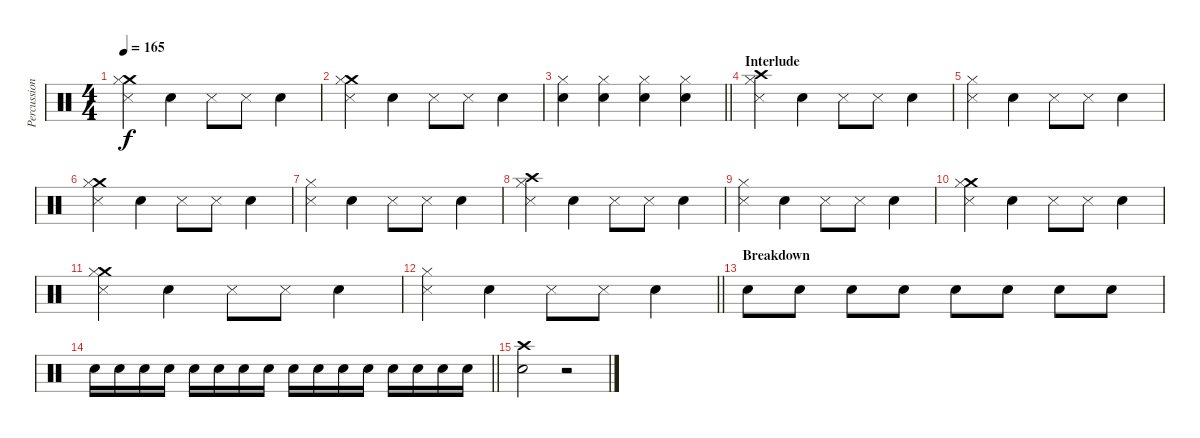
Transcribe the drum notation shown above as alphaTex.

\track ("Percussion" "Percussion") {instrument percussion}
\staff {score}
\articulation defaults
\ts (4 4)
\tempo 165
\clef neutral
\ks c
("Metronome (hit)" "Crash medium (hit)" "Hi-Hat (closed)").4{dy f} "Electric Snare (hit)".4 "Metronome (hit)".8 "Metronome (hit)".8 "Electric Snare (hit)".4 |
("Metronome (hit)" "Crash medium (hit)" "Hi-Hat (closed)").4 "Electric Snare (hit)".4 "Metronome (hit)".8 "Metronome (hit)".8 "Electric Snare (hit)".4 |
\barLineRight lightlight
("Hi-Hat (closed)" "Electric Snare (hit)").4 ("Hi-Hat (closed)" "Electric Snare (hit)").4 ("Hi-Hat (closed)" "Electric Snare (hit)").4 ("Hi-Hat (closed)" "Electric Snare (hit)").4 |
\section ("" "Interlude")
("Metronome (hit)" "Crash high (hit)" "Hi-Hat (closed)").4 "Electric Snare (hit)".4 "Metronome (hit)".8 "Metronome (hit)".8 "Electric Snare (hit)".4 |
("Metronome (hit)" "Hi-Hat (closed)").4 "Electric Snare (hit)".4 "Metronome (hit)".8 "Metronome (hit)".8 "Electric Snare (hit)".4 |
("Metronome (hit)" "Crash medium (hit)" "Hi-Hat (closed)").4 "Electric Snare (hit)".4 "Metronome (hit)".8 "Metronome (hit)".8 "Electric Snare (hit)".4 |
("Metronome (hit)" "Hi-Hat (closed)").4 "Electric Snare (hit)".4 "Metronome (hit)".8 "Metronome (hit)".8 "Electric Snare (hit)".4 |
("Metronome (hit)" "Crash high (hit)" "Hi-Hat (closed)").4 "Electric Snare (hit)".4 "Metronome (hit)".8 "Metronome (hit)".8 "Electric Snare (hit)".4 |
("Metronome (hit)" "Hi-Hat (closed)").4 "Electric Snare (hit)".4 "Metronome (hit)".8 "Metronome (hit)".8 "Electric Snare (hit)".4 |
("Metronome (hit)" "Crash medium (hit)" "Hi-Hat (closed)").4 "Electric Snare (hit)".4 "Metronome (hit)".8 "Metronome (hit)".8 "Electric Snare (hit)".4 |
("Metronome (hit)" "Crash medium (hit)" "Hi-Hat (closed)").4 "Electric Snare (hit)".4 "Metronome (hit)".8 "Metronome (hit)".8 "Electric Snare (hit)".4 |
\barLineRight lightlight
("Metronome (hit)" "Hi-Hat (closed)").4 "Electric Snare (hit)".4 "Metronome (hit)".8 "Metronome (hit)".8 "Electric Snare (hit)".4 |
\section ("" "Breakdown")
"Electric Snare (hit)".8 "Electric Snare (hit)".8 "Electric Snare (hit)".8 "Electric Snare (hit)".8 "Electric Snare (hit)".8 "Electric Snare (hit)".8 "Electric Snare (hit)".8 "Electric Snare (hit)".8 |
\barLineRight lightlight "Electric Snare (hit)".16 "Electric Snare (hit)".16 "Electric Snare (hit)".16 "Electric Snare (hit)".16 "Electric Snare (hit)".16 "Electric Snare (hit)".16 "Electric Snare (hit)".16 "Electric Snare (hit)".16 "Electric Snare (hit)".16 "Electric Snare (hit)".16 "Electric Snare (hit)".16 "Electric Snare (hit)".16 "Electric Snare (hit)".16 "Electric Snare (hit)".16 "Electric Snare (hit)".16 "Electric Snare (hit)".16
|
("Crash high (hit)" "Electric Snare (hit)").2 r.2
